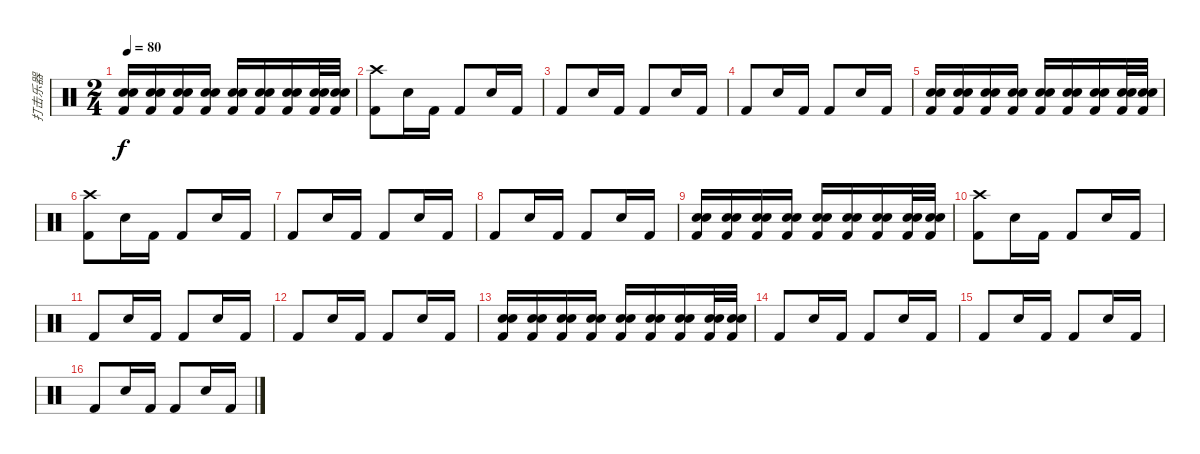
\track ("打击乐器" "打击乐器") {instrument percussion}
\staff {score}
\articulation defaults
\ts (2 4)
\tempo 80
\clef neutral
\ks c
("Electric Snare (hit)" "Electric Snare (hit)" "Kick (hit) 2").16{dy f} ("Electric Snare (hit)" "Electric Snare (hit)" "Kick (hit) 2").16 ("Electric Snare (hit)" "Electric Snare (hit)" "Kick (hit) 2").16 ("Electric Snare (hit)" "Electric Snare (hit)" "Kick (hit) 2").16 ("Electric Snare (hit)" "Electric Snare (hit)" "Kick (hit) 2").16 ("Electric Snare (hit)" "Electric Snare (hit)" "Kick (hit) 2").16 ("Electric Snare (hit)" "Electric Snare (hit)" "Kick (hit) 2").16 ("Electric Snare (hit)" "Electric Snare (hit)" "Kick (hit) 2").32 ("Electric Snare (hit)" "Electric Snare (hit)" "Kick (hit) 2").32 |
("Crash high (hit)" "Kick (hit) 2").8 "Electric Snare (hit)".16 "Kick (hit) 2".16 "Kick (hit) 2".8 "Electric Snare (hit)".16 "Kick (hit) 2".16 |
"Kick (hit) 2".8 "Electric Snare (hit)".16 "Kick (hit) 2".16 "Kick (hit) 2".8 "Electric Snare (hit)".16 "Kick (hit) 2".16 |
"Kick (hit) 2".8 "Electric Snare (hit)".16 "Kick (hit) 2".16 "Kick (hit) 2".8 "Electric Snare (hit)".16 "Kick (hit) 2".16 |
("Electric Snare (hit)" "Electric Snare (hit)" "Kick (hit) 2").16 ("Electric Snare (hit)" "Electric Snare (hit)" "Kick (hit) 2").16 ("Electric Snare (hit)" "Electric Snare (hit)" "Kick (hit) 2").16 ("Electric Snare (hit)" "Electric Snare (hit)" "Kick (hit) 2").16 ("Electric Snare (hit)" "Electric Snare (hit)" "Kick (hit) 2").16 ("Electric Snare (hit)" "Electric Snare (hit)" "Kick (hit) 2").16 ("Electric Snare (hit)" "Electric Snare (hit)" "Kick (hit) 2").16 ("Electric Snare (hit)" "Electric Snare (hit)" "Kick (hit) 2").32 ("Electric Snare (hit)" "Electric Snare (hit)" "Kick (hit) 2").32 |
("Crash high (hit)" "Kick (hit) 2").8 "Electric Snare (hit)".16 "Kick (hit) 2".16 "Kick (hit) 2".8 "Electric Snare (hit)".16 "Kick (hit) 2".16 |
"Kick (hit) 2".8 "Electric Snare (hit)".16 "Kick (hit) 2".16 "Kick (hit) 2".8 "Electric Snare (hit)".16 "Kick (hit) 2".16 |
"Kick (hit) 2".8 "Electric Snare (hit)".16 "Kick (hit) 2".16 "Kick (hit) 2".8 "Electric Snare (hit)".16 "Kick (hit) 2".16 |
("Electric Snare (hit)" "Electric Snare (hit)" "Kick (hit) 2").16 ("Electric Snare (hit)" "Electric Snare (hit)" "Kick (hit) 2").16 ("Electric Snare (hit)" "Electric Snare (hit)" "Kick (hit) 2").16 ("Electric Snare (hit)" "Electric Snare (hit)" "Kick (hit) 2").16 ("Electric Snare (hit)" "Electric Snare (hit)" "Kick (hit) 2").16 ("Electric Snare (hit)" "Electric Snare (hit)" "Kick (hit) 2").16 ("Electric Snare (hit)" "Electric Snare (hit)" "Kick (hit) 2").16 ("Electric Snare (hit)" "Electric Snare (hit)" "Kick (hit) 2").32 ("Electric Snare (hit)" "Electric Snare (hit)" "Kick (hit) 2").32 |
("Crash high (hit)" "Kick (hit) 2").8 "Electric Snare (hit)".16 "Kick (hit) 2".16 "Kick (hit) 2".8 "Electric Snare (hit)".16 "Kick (hit) 2".16 |
"Kick (hit) 2".8 "Electric Snare (hit)".16 "Kick (hit) 2".16 "Kick (hit) 2".8 "Electric Snare (hit)".16 "Kick (hit) 2".16 |
"Kick (hit) 2".8 "Electric Snare (hit)".16 "Kick (hit) 2".16 "Kick (hit) 2".8 "Electric Snare (hit)".16 "Kick (hit) 2".16 |
("Electric Snare (hit)" "Electric Snare (hit)" "Kick (hit) 2").16 ("Electric Snare (hit)" "Electric Snare (hit)" "Kick (hit) 2").16 ("Electric Snare (hit)" "Electric Snare (hit)" "Kick (hit) 2").16 ("Electric Snare (hit)" "Electric Snare (hit)" "Kick (hit) 2").16 ("Electric Snare (hit)" "Electric Snare (hit)" "Kick (hit) 2").16 ("Electric Snare (hit)" "Electric Snare (hit)" "Kick (hit) 2").16 ("Electric Snare (hit)" "Electric Snare (hit)" "Kick (hit) 2").16 ("Electric Snare (hit)" "Electric Snare (hit)" "Kick (hit) 2").32 ("Electric Snare (hit)" "Electric Snare (hit)" "Kick (hit) 2").32 |
"Kick (hit) 2".8 "Electric Snare (hit)".16 "Kick (hit) 2".16 "Kick (hit) 2".8 "Electric Snare (hit)".16 "Kick (hit) 2".16 |
"Kick (hit) 2".8 "Electric Snare (hit)".16 "Kick (hit) 2".16 "Kick (hit) 2".8 "Electric Snare (hit)".16 "Kick (hit) 2".16 |
"Kick (hit) 2".8 "Electric Snare (hit)".16 "Kick (hit) 2".16 "Kick (hit) 2".8 "Electric Snare (hit)".16 "Kick (hit) 2".16
